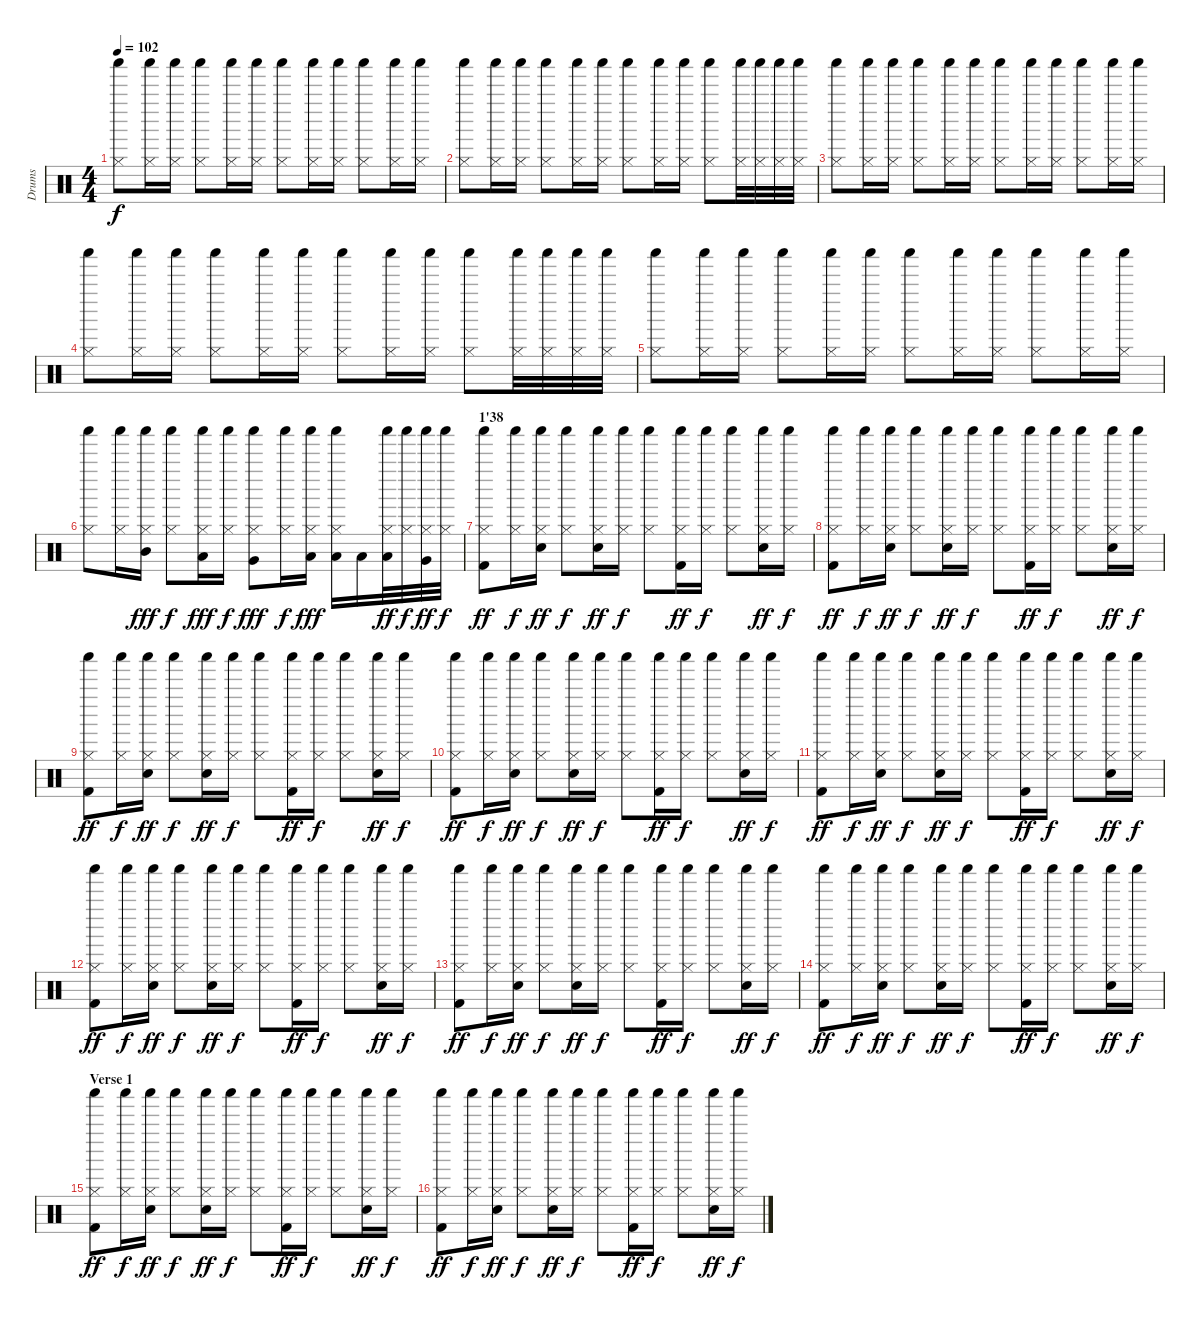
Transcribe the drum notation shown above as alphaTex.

\track ("Drums" "Drums") {instrument percussion}
\staff {score}
\articulation defaults
\ts (4 4)
\tempo 102
\clef neutral
\ks c
("Hi-Hat (closed)" "Shaker (hit)").8{dy f} ("Hi-Hat (closed)" "Shaker (hit)").16 ("Hi-Hat (closed)" "Shaker (hit)").16 ("Hi-Hat (closed)" "Shaker (hit)").8 ("Hi-Hat (closed)" "Shaker (hit)").16 ("Hi-Hat (closed)" "Shaker (hit)").16 ("Hi-Hat (closed)" "Shaker (hit)").8 ("Hi-Hat (closed)" "Shaker (hit)").16 ("Hi-Hat (closed)" "Shaker (hit)").16 ("Hi-Hat (closed)" "Shaker (hit)").8 ("Hi-Hat (closed)" "Shaker (hit)").16 ("Hi-Hat (closed)" "Shaker (hit)").16 |
("Hi-Hat (closed)" "Shaker (hit)").8 ("Hi-Hat (closed)" "Shaker (hit)").16 ("Hi-Hat (closed)" "Shaker (hit)").16 ("Hi-Hat (closed)" "Shaker (hit)").8 ("Hi-Hat (closed)" "Shaker (hit)").16 ("Hi-Hat (closed)" "Shaker (hit)").16 ("Hi-Hat (closed)" "Shaker (hit)").8 ("Hi-Hat (closed)" "Shaker (hit)").16 ("Hi-Hat (closed)" "Shaker (hit)").16 ("Hi-Hat (closed)" "Shaker (hit)").8 ("Hi-Hat (closed)" "Shaker (hit)").32 ("Hi-Hat (closed)" "Shaker (hit)").32 ("Hi-Hat (closed)" "Shaker (hit)").32 ("Hi-Hat (closed)" "Shaker (hit)").32 |
("Hi-Hat (closed)" "Shaker (hit)").8 ("Hi-Hat (closed)" "Shaker (hit)").16 ("Hi-Hat (closed)" "Shaker (hit)").16 ("Hi-Hat (closed)" "Shaker (hit)").8 ("Hi-Hat (closed)" "Shaker (hit)").16 ("Hi-Hat (closed)" "Shaker (hit)").16 ("Hi-Hat (closed)" "Shaker (hit)").8 ("Hi-Hat (closed)" "Shaker (hit)").16 ("Hi-Hat (closed)" "Shaker (hit)").16 ("Hi-Hat (closed)" "Shaker (hit)").8 ("Hi-Hat (closed)" "Shaker (hit)").16 ("Hi-Hat (closed)" "Shaker (hit)").16 |
("Hi-Hat (closed)" "Shaker (hit)").8 ("Hi-Hat (closed)" "Shaker (hit)").16 ("Hi-Hat (closed)" "Shaker (hit)").16 ("Hi-Hat (closed)" "Shaker (hit)").8 ("Hi-Hat (closed)" "Shaker (hit)").16 ("Hi-Hat (closed)" "Shaker (hit)").16 ("Hi-Hat (closed)" "Shaker (hit)").8 ("Hi-Hat (closed)" "Shaker (hit)").16 ("Hi-Hat (closed)" "Shaker (hit)").16 ("Hi-Hat (closed)" "Shaker (hit)").8 ("Hi-Hat (closed)" "Shaker (hit)").32 ("Hi-Hat (closed)" "Shaker (hit)").32 ("Hi-Hat (closed)" "Shaker (hit)").32 ("Hi-Hat (closed)" "Shaker (hit)").32 |
("Hi-Hat (closed)" "Shaker (hit)").8 ("Hi-Hat (closed)" "Shaker (hit)").16 ("Hi-Hat (closed)" "Shaker (hit)").16 ("Hi-Hat (closed)" "Shaker (hit)").8 ("Hi-Hat (closed)" "Shaker (hit)").16 ("Hi-Hat (closed)" "Shaker (hit)").16 ("Hi-Hat (closed)" "Shaker (hit)").8 ("Hi-Hat (closed)" "Shaker (hit)").16 ("Hi-Hat (closed)" "Shaker (hit)").16 ("Hi-Hat (closed)" "Shaker (hit)").8 ("Hi-Hat (closed)" "Shaker (hit)").16 ("Hi-Hat (closed)" "Shaker (hit)").16 |
("Hi-Hat (closed)" "Shaker (hit)").8 ("Hi-Hat (closed)" "Shaker (hit)").16 ("Hi-Hat (closed)" "Shaker (hit)" "Mid Tom (hit)").16{dy fff} ("Hi-Hat (closed)" "Shaker (hit)").8{dy f} ("Hi-Hat (closed)" "Shaker (hit)" "Low Tom (hit)").16{dy fff} ("Hi-Hat (closed)" "Shaker (hit)").16{dy f} ("Hi-Hat (closed)" "Shaker (hit)" "Very Low Tom (hit)").8{dy fff} ("Hi-Hat (closed)" "Shaker (hit)").16{dy f} ("Hi-Hat (closed)" "Shaker (hit)" "Low Tom (hit)").16{dy fff} ("Hi-Hat (closed)" "Shaker (hit)" "Low Tom (hit)").16 "Low Tom (hit)".16 ("Hi-Hat (closed)" "Shaker (hit)" "Low Tom (hit)").32{dy ff} ("Hi-Hat (closed)" "Shaker (hit)").32{dy f} ("Hi-Hat (closed)" "Shaker (hit)" "Very Low Tom (hit)").32{dy ff} ("Hi-Hat (closed)" "Shaker (hit)").32{dy f} |
\section ("" "1'38")
("Hi-Hat (closed)" "Shaker (hit)" "Kick (hit) 2").8{dy ff} ("Hi-Hat (closed)" "Shaker (hit)").16{dy f} ("Hi-Hat (closed)" "Shaker (hit)" "Snare (hit) 2").16{dy ff} ("Hi-Hat (closed)" "Shaker (hit)").8{dy f} ("Hi-Hat (closed)" "Shaker (hit)" "Snare (hit) 2").16{dy ff} ("Hi-Hat (closed)" "Shaker (hit)").16{dy f} ("Hi-Hat (closed)" "Shaker (hit)").8 ("Hi-Hat (closed)" "Shaker (hit)" "Kick (hit) 2").16{dy ff} ("Hi-Hat (closed)" "Shaker (hit)").16{dy f} ("Hi-Hat (closed)" "Shaker (hit)").8 ("Hi-Hat (closed)" "Shaker (hit)" "Snare (hit) 2").16{dy ff} ("Hi-Hat (closed)" "Shaker (hit)").16{dy f} |
("Hi-Hat (closed)" "Shaker (hit)" "Kick (hit) 2").8{dy ff} ("Hi-Hat (closed)" "Shaker (hit)").16{dy f} ("Hi-Hat (closed)" "Shaker (hit)" "Snare (hit) 2").16{dy ff} ("Hi-Hat (closed)" "Shaker (hit)").8{dy f} ("Hi-Hat (closed)" "Shaker (hit)" "Snare (hit) 2").16{dy ff} ("Hi-Hat (closed)" "Shaker (hit)").16{dy f} ("Hi-Hat (closed)" "Shaker (hit)").8 ("Hi-Hat (closed)" "Shaker (hit)" "Kick (hit) 2").16{dy ff} ("Hi-Hat (closed)" "Shaker (hit)").16{dy f} ("Hi-Hat (closed)" "Shaker (hit)").8 ("Hi-Hat (closed)" "Shaker (hit)" "Snare (hit) 2").16{dy ff} ("Hi-Hat (closed)" "Shaker (hit)").16{dy f} |
("Hi-Hat (closed)" "Shaker (hit)" "Kick (hit) 2").8{dy ff} ("Hi-Hat (closed)" "Shaker (hit)").16{dy f} ("Hi-Hat (closed)" "Shaker (hit)" "Snare (hit) 2").16{dy ff} ("Hi-Hat (closed)" "Shaker (hit)").8{dy f} ("Hi-Hat (closed)" "Shaker (hit)" "Snare (hit) 2").16{dy ff} ("Hi-Hat (closed)" "Shaker (hit)").16{dy f} ("Hi-Hat (closed)" "Shaker (hit)").8 ("Hi-Hat (closed)" "Shaker (hit)" "Kick (hit) 2").16{dy ff} ("Hi-Hat (closed)" "Shaker (hit)").16{dy f} ("Hi-Hat (closed)" "Shaker (hit)").8 ("Hi-Hat (closed)" "Shaker (hit)" "Snare (hit) 2").16{dy ff} ("Hi-Hat (closed)" "Shaker (hit)").16{dy f} |
("Hi-Hat (closed)" "Shaker (hit)" "Kick (hit) 2").8{dy ff} ("Hi-Hat (closed)" "Shaker (hit)").16{dy f} ("Hi-Hat (closed)" "Shaker (hit)" "Snare (hit) 2").16{dy ff} ("Hi-Hat (closed)" "Shaker (hit)").8{dy f} ("Hi-Hat (closed)" "Shaker (hit)" "Snare (hit) 2").16{dy ff} ("Hi-Hat (closed)" "Shaker (hit)").16{dy f} ("Hi-Hat (closed)" "Shaker (hit)").8 ("Hi-Hat (closed)" "Shaker (hit)" "Kick (hit) 2").16{dy ff} ("Hi-Hat (closed)" "Shaker (hit)").16{dy f} ("Hi-Hat (closed)" "Shaker (hit)").8 ("Hi-Hat (closed)" "Shaker (hit)" "Snare (hit) 2").16{dy ff} ("Hi-Hat (closed)" "Shaker (hit)").16{dy f} |
("Hi-Hat (closed)" "Shaker (hit)" "Kick (hit) 2").8{dy ff} ("Hi-Hat (closed)" "Shaker (hit)").16{dy f} ("Hi-Hat (closed)" "Shaker (hit)" "Snare (hit) 2").16{dy ff} ("Hi-Hat (closed)" "Shaker (hit)").8{dy f} ("Hi-Hat (closed)" "Shaker (hit)" "Snare (hit) 2").16{dy ff} ("Hi-Hat (closed)" "Shaker (hit)").16{dy f} ("Hi-Hat (closed)" "Shaker (hit)").8 ("Hi-Hat (closed)" "Shaker (hit)" "Kick (hit) 2").16{dy ff} ("Hi-Hat (closed)" "Shaker (hit)").16{dy f} ("Hi-Hat (closed)" "Shaker (hit)").8 ("Hi-Hat (closed)" "Shaker (hit)" "Snare (hit) 2").16{dy ff} ("Hi-Hat (closed)" "Shaker (hit)").16{dy f} |
("Hi-Hat (closed)" "Shaker (hit)" "Kick (hit) 2").8{dy ff} ("Hi-Hat (closed)" "Shaker (hit)").16{dy f} ("Hi-Hat (closed)" "Shaker (hit)" "Snare (hit) 2").16{dy ff} ("Hi-Hat (closed)" "Shaker (hit)").8{dy f} ("Hi-Hat (closed)" "Shaker (hit)" "Snare (hit) 2").16{dy ff} ("Hi-Hat (closed)" "Shaker (hit)").16{dy f} ("Hi-Hat (closed)" "Shaker (hit)").8 ("Hi-Hat (closed)" "Shaker (hit)" "Kick (hit) 2").16{dy ff} ("Hi-Hat (closed)" "Shaker (hit)").16{dy f} ("Hi-Hat (closed)" "Shaker (hit)").8 ("Hi-Hat (closed)" "Shaker (hit)" "Snare (hit) 2").16{dy ff} ("Hi-Hat (closed)" "Shaker (hit)").16{dy f} |
("Hi-Hat (closed)" "Shaker (hit)" "Kick (hit) 2").8{dy ff} ("Hi-Hat (closed)" "Shaker (hit)").16{dy f} ("Hi-Hat (closed)" "Shaker (hit)" "Snare (hit) 2").16{dy ff} ("Hi-Hat (closed)" "Shaker (hit)").8{dy f} ("Hi-Hat (closed)" "Shaker (hit)" "Snare (hit) 2").16{dy ff} ("Hi-Hat (closed)" "Shaker (hit)").16{dy f} ("Hi-Hat (closed)" "Shaker (hit)").8 ("Hi-Hat (closed)" "Shaker (hit)" "Kick (hit) 2").16{dy ff} ("Hi-Hat (closed)" "Shaker (hit)").16{dy f} ("Hi-Hat (closed)" "Shaker (hit)").8 ("Hi-Hat (closed)" "Shaker (hit)" "Snare (hit) 2").16{dy ff} ("Hi-Hat (closed)" "Shaker (hit)").16{dy f} |
("Hi-Hat (closed)" "Shaker (hit)" "Kick (hit) 2").8{dy ff} ("Hi-Hat (closed)" "Shaker (hit)").16{dy f} ("Hi-Hat (closed)" "Shaker (hit)" "Snare (hit) 2").16{dy ff} ("Hi-Hat (closed)" "Shaker (hit)").8{dy f} ("Hi-Hat (closed)" "Shaker (hit)" "Snare (hit) 2").16{dy ff} ("Hi-Hat (closed)" "Shaker (hit)").16{dy f} ("Hi-Hat (closed)" "Shaker (hit)").8 ("Hi-Hat (closed)" "Shaker (hit)" "Kick (hit) 2").16{dy ff} ("Hi-Hat (closed)" "Shaker (hit)").16{dy f} ("Hi-Hat (closed)" "Shaker (hit)").8 ("Hi-Hat (closed)" "Shaker (hit)" "Snare (hit) 2").16{dy ff} ("Hi-Hat (closed)" "Shaker (hit)").16{dy f} |
\section ("" "Verse 1")
("Hi-Hat (closed)" "Shaker (hit)" "Kick (hit) 2").8{dy ff} ("Hi-Hat (closed)" "Shaker (hit)").16{dy f} ("Hi-Hat (closed)" "Shaker (hit)" "Snare (hit) 2").16{dy ff} ("Hi-Hat (closed)" "Shaker (hit)").8{dy f} ("Hi-Hat (closed)" "Shaker (hit)" "Snare (hit) 2").16{dy ff} ("Hi-Hat (closed)" "Shaker (hit)").16{dy f} ("Hi-Hat (closed)" "Shaker (hit)").8 ("Hi-Hat (closed)" "Shaker (hit)" "Kick (hit) 2").16{dy ff} ("Hi-Hat (closed)" "Shaker (hit)").16{dy f} ("Hi-Hat (closed)" "Shaker (hit)").8 ("Hi-Hat (closed)" "Shaker (hit)" "Snare (hit) 2").16{dy ff} ("Hi-Hat (closed)" "Shaker (hit)").16{dy f} |
("Hi-Hat (closed)" "Shaker (hit)" "Kick (hit) 2").8{dy ff} ("Hi-Hat (closed)" "Shaker (hit)").16{dy f} ("Hi-Hat (closed)" "Shaker (hit)" "Snare (hit) 2").16{dy ff} ("Hi-Hat (closed)" "Shaker (hit)").8{dy f} ("Hi-Hat (closed)" "Shaker (hit)" "Snare (hit) 2").16{dy ff} ("Hi-Hat (closed)" "Shaker (hit)").16{dy f} ("Hi-Hat (closed)" "Shaker (hit)").8 ("Hi-Hat (closed)" "Shaker (hit)" "Kick (hit) 2").16{dy ff} ("Hi-Hat (closed)" "Shaker (hit)").16{dy f} ("Hi-Hat (closed)" "Shaker (hit)").8 ("Hi-Hat (closed)" "Shaker (hit)" "Snare (hit) 2").16{dy ff} ("Hi-Hat (closed)" "Shaker (hit)").16{dy f}
